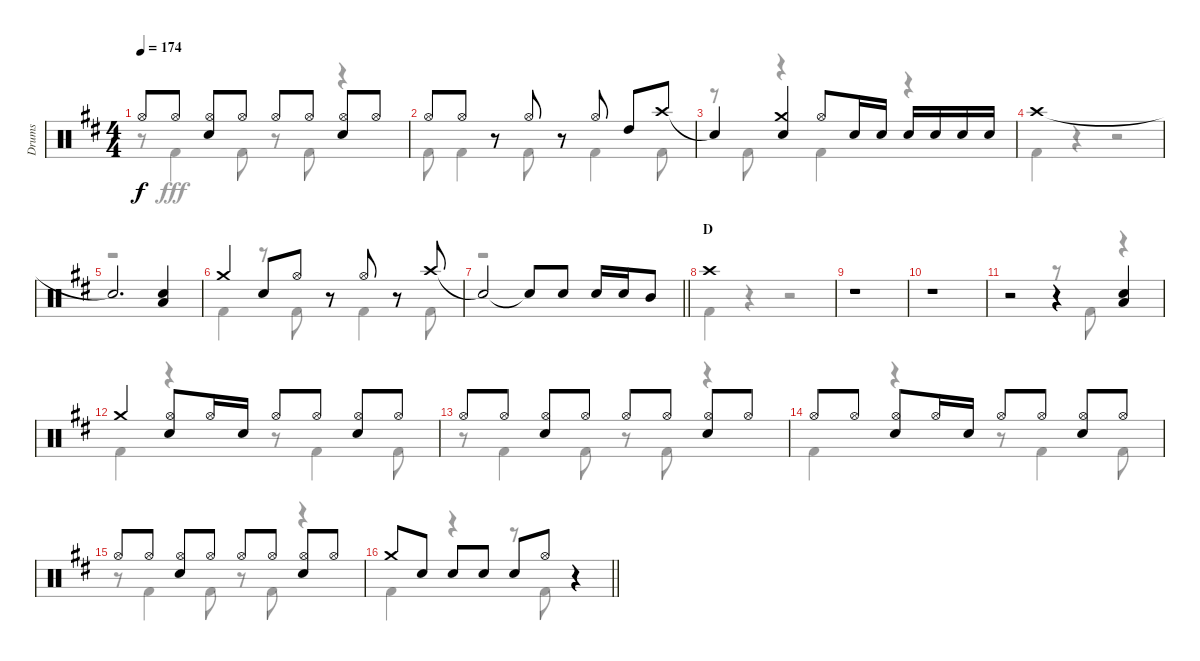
\track ("Drums" "Drums") {instrument percussion}
\staff {score}
\articulation defaults
\voice
\ts (4 4)
\tempo 174
\clef neutral
\ks bminor "Hi-Hat (open)".8{dy f} "Hi-Hat (open)".8
("Hi-Hat (open)" "Snare (hit) 2").8 "Hi-Hat (open)".8 "Hi-Hat (open)".8 "Hi-Hat (open)".8 ("Hi-Hat (open)" "Snare (hit) 2").8 "Hi-Hat (open)".8 |
"Hi-Hat (open)".8 "Hi-Hat (open)".8 r.8 "Hi-Hat (open)".8 r.8 "Hi-Hat (open)".8 "High Tom (hit)".8 "Crash high (hit)".8 |
"Snare (hit)"{t}.4 ("Crash medium (hit)" "Snare (hit) 2").4 "Hi-Hat (open)".8 "Snare (hit) 2".16 "Snare (hit) 2".16 "Snare (hit) 2".16 "Snare (hit) 2".16 "Snare (hit) 2".16 "Snare (hit) 2".16 |
"Crash high (hit)".1 |
"Snare (hit)"{t}.2{d} ("Snare (hit) 2" "Low Tom (hit)").4 |
"Crash medium (hit)".4 "Snare (hit) 2".8 "Hi-Hat (open)".8 r.8 "Hi-Hat (open)".8 r.8 "Crash high (hit)".8 |
\barLineRight lightlight "Snare (hit)"{t}.2 "Snare (hit)"{t}.8 "Snare (hit) 2".8 "Snare (hit) 2".16 "Snare (hit) 2".16 "Mid Tom (hit)".8
|
\section ("" "D")
"Crash high (hit)".1 |
r.1 |
r.1 |
r.2 r.4 ("Snare (hit) 2" "Low Tom (hit)").4 |
"Crash medium (hit)".4 ("Hi-Hat (open)" "Snare (hit) 2").8 "Hi-Hat (open)".16 "Snare (hit) 2".16 "Hi-Hat (open)".8 "Hi-Hat (open)".8 ("Hi-Hat (open)" "Snare (hit) 2").8 "Hi-Hat (open)".8 |
"Hi-Hat (open)".8 "Hi-Hat (open)".8 ("Hi-Hat (open)" "Snare (hit) 2").8 "Hi-Hat (open)".8 "Hi-Hat (open)".8 "Hi-Hat (open)".8 ("Hi-Hat (open)" "Snare (hit) 2").8 "Hi-Hat (open)".8 |
"Hi-Hat (open)".8 "Hi-Hat (open)".8 ("Hi-Hat (open)" "Snare (hit) 2").8 "Hi-Hat (open)".16 "Snare (hit) 2".16 "Hi-Hat (open)".8 "Hi-Hat (open)".8 ("Hi-Hat (open)" "Snare (hit) 2").8 "Hi-Hat (open)".8 |
"Hi-Hat (open)".8 "Hi-Hat (open)".8 ("Hi-Hat (open)" "Snare (hit) 2").8 "Hi-Hat (open)".8 "Hi-Hat (open)".8 "Hi-Hat (open)".8 ("Hi-Hat (open)" "Snare (hit) 2").8 "Hi-Hat (open)".8 |
\barLineRight lightlight "Crash medium (hit)".8 "Snare (hit) 2".8 "Snare (hit) 2".8 "Snare (hit) 2".8 "Snare (hit) 2".8 "Hi-Hat (open)".8
r.4
\voice
\clef neutral
\ottava regular
\simile none
\ks bminor
r.8{dy fff} "Kick (hit) 2".4 "Kick (hit) 2".8 r.8 "Kick (hit) 2".8 r.4 |
"Kick (hit) 2".8 "Kick (hit) 2".4 "Kick (hit) 2".8 r.8 "Kick (hit) 2".4 "Kick (hit) 2".8 |
r.8 "Kick (hit) 2".8 r.4 "Kick (hit) 2".4 r.4 |
"Kick (hit) 2".4 r.4 r.2 |
r.1 |
"Kick (hit) 2".4 r.8 "Kick (hit) 2".8 r.8 "Kick (hit) 2".4 "Kick (hit) 2".8 |
\barLineRight lightlight
r.1 |
"Kick (hit) 2".4 r.4 r.2 |
r.1 |
r.1 |
r.2 r.8 "Kick (hit) 2".8 r.4 |
"Kick (hit) 2".4 r.4 r.8 "Kick (hit) 2".4 "Kick (hit) 2".8 |
r.8 "Kick (hit) 2".4 "Kick (hit) 2".8 r.8 "Kick (hit) 2".8 r.4 |
"Kick (hit) 2".4 r.4 r.8 "Kick (hit) 2".4 "Kick (hit) 2".8 |
r.8 "Kick (hit) 2".4 "Kick (hit) 2".8 r.8 "Kick (hit) 2".8 r.4 |
\barLineRight lightlight "Kick (hit) 2".4
r.4 r.8 "Kick (hit) 2".8 r.4
